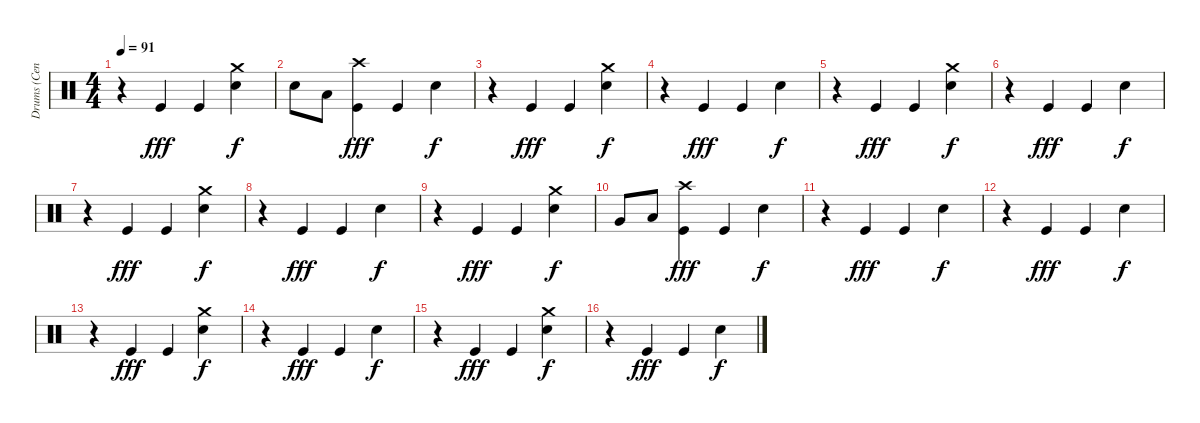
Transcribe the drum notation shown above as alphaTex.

\track ("Drums (Cenk)" "Drums (Cen") {instrument percussion}
\staff {score}
\articulation defaults
\ts (4 4)
\tempo 91
\clef neutral
\ks c
r.4{dy f} "Kick (hit)".4{dy fff} "Kick (hit)".4 ("Crash medium (hit)" "Snare (hit) 2").4{dy f} |
"Snare (hit) 2".8 "Low Tom (hit)".8 ("Crash high (hit)" "Kick (hit)").4{dy fff} "Kick (hit)".4 "Snare (hit) 2".4{dy f} |
r.4 "Kick (hit)".4{dy fff} "Kick (hit)".4 ("Crash medium (hit)" "Snare (hit) 2").4{dy f} |
r.4 "Kick (hit)".4{dy fff} "Kick (hit)".4 "Snare (hit) 2".4{dy f} |
r.4 "Kick (hit)".4{dy fff} "Kick (hit)".4 ("Crash medium (hit)" "Snare (hit) 2").4{dy f} |
r.4 "Kick (hit)".4{dy fff} "Kick (hit)".4 "Snare (hit) 2".4{dy f} |
r.4 "Kick (hit)".4{dy fff} "Kick (hit)".4 ("Crash medium (hit)" "Snare (hit) 2").4{dy f} |
r.4 "Kick (hit)".4{dy fff} "Kick (hit)".4 "Snare (hit) 2".4{dy f} |
r.4 "Kick (hit)".4{dy fff} "Kick (hit)".4 ("Crash medium (hit)" "Snare (hit) 2").4{dy f} |
"Very Low Tom (hit)".8 "Low Floor Tom (hit)".8 ("Crash high (hit)" "Kick (hit)").4{dy fff} "Kick (hit)".4 "Snare (hit) 2".4{dy f} |
r.4 "Kick (hit)".4{dy fff} "Kick (hit)".4 "Snare (hit) 2".4{dy f} |
r.4 "Kick (hit)".4{dy fff} "Kick (hit)".4 "Snare (hit) 2".4{dy f} |
r.4 "Kick (hit)".4{dy fff} "Kick (hit)".4 ("Crash medium (hit)" "Snare (hit) 2").4{dy f} |
r.4 "Kick (hit)".4{dy fff} "Kick (hit)".4 "Snare (hit) 2".4{dy f} |
r.4 "Kick (hit)".4{dy fff} "Kick (hit)".4 ("Crash medium (hit)" "Snare (hit) 2").4{dy f} |
r.4 "Kick (hit)".4{dy fff} "Kick (hit)".4 "Snare (hit) 2".4{dy f}
